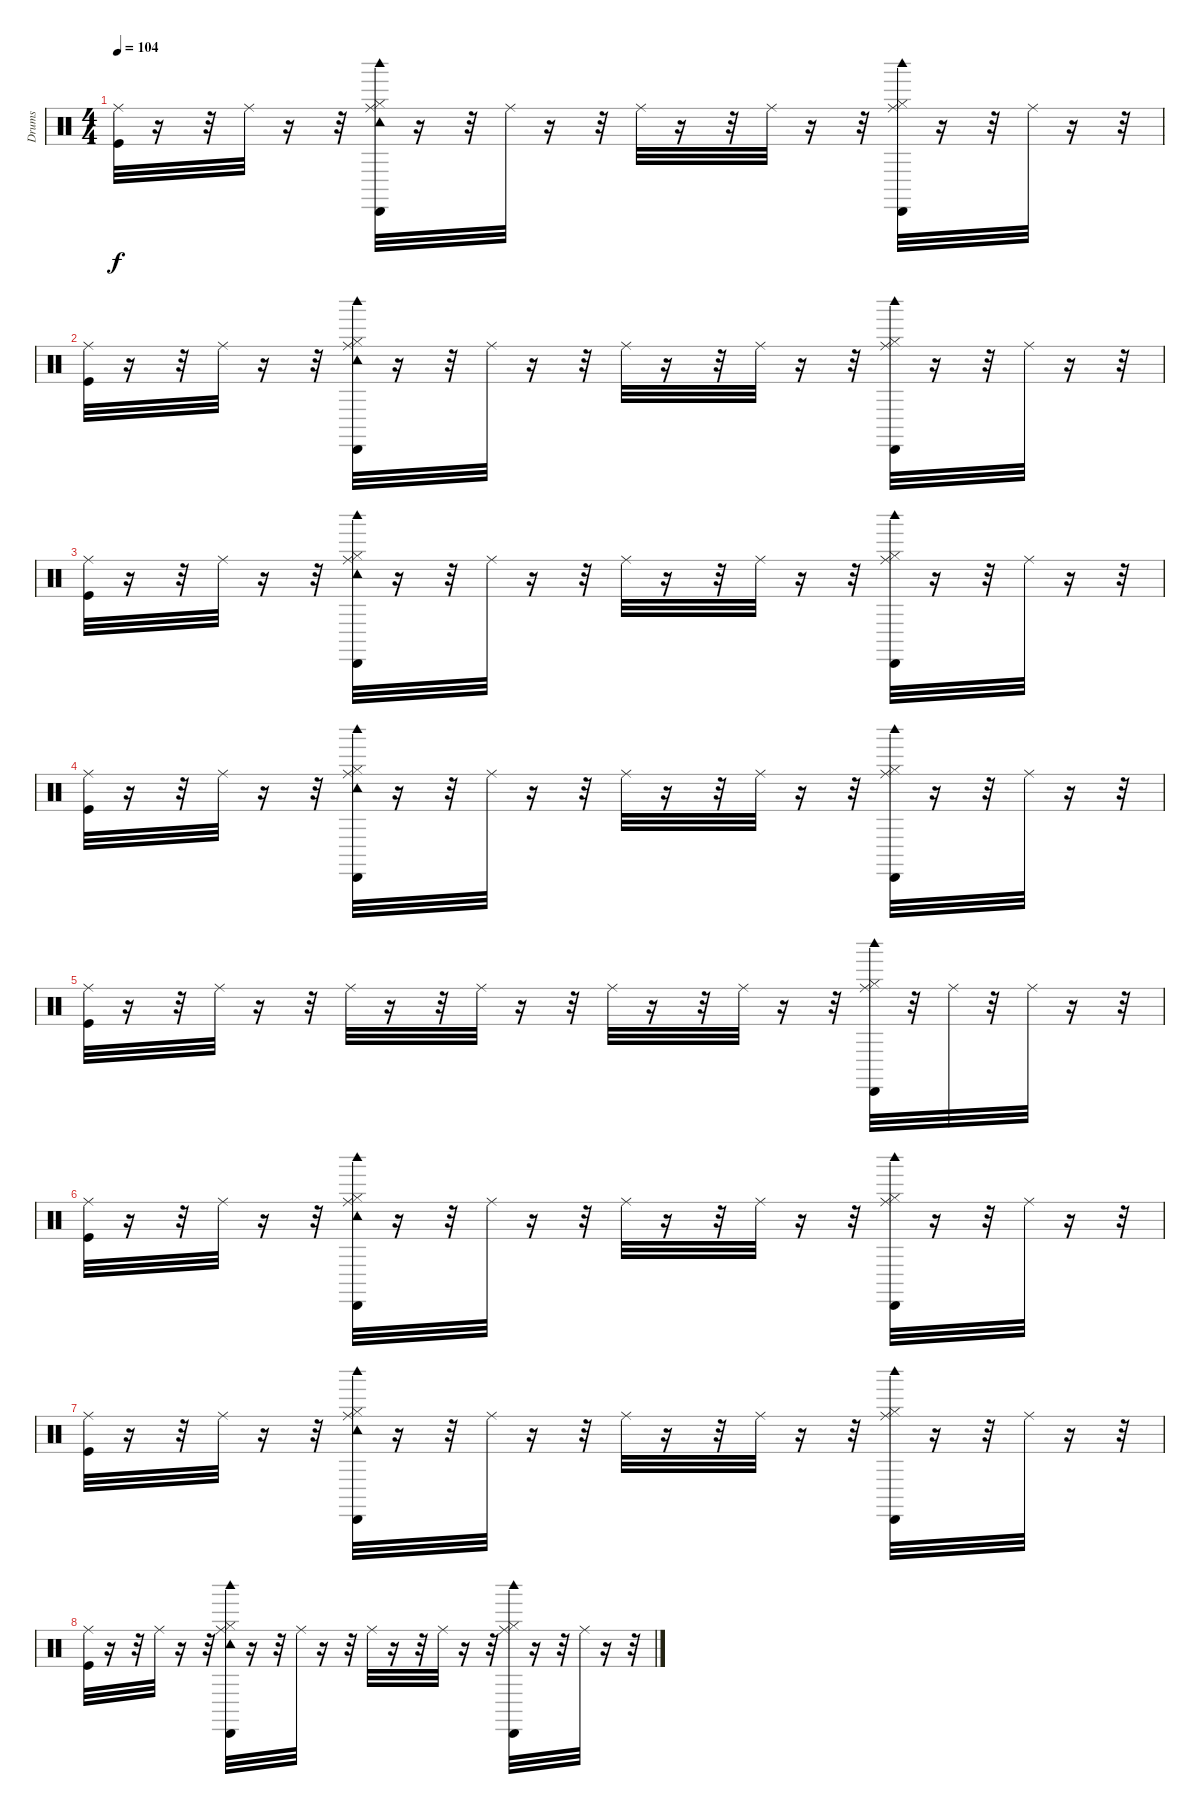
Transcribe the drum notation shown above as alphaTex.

\track ("Drums" "Drums") {instrument percussion}
\staff {score}
\articulation defaults
\ts (4 4)
\tempo 104
\clef neutral
\ks c
("Kick (hit)" "Ride (middle)").32{dy f} r.16 r.32 "Ride (middle)".32 r.16 r.32 ("Hi-Hat (closed)" "Ride (middle)" "Tambourine (hit)" "Cabasa (hit)" "Woodblock high (hit)").32 r.16 r.32 "Ride (middle)".32 r.16 r.32 "Ride (middle)".32 r.16 r.32 "Ride (middle)".32 r.16 r.32 ("Hi-Hat (closed)" "Ride (middle)" "Cabasa (hit)" "Woodblock high (hit)").32 r.16 r.32 "Ride (middle)".32 r.16 r.32 |
("Kick (hit)" "Ride (middle)").32 r.16 r.32 "Ride (middle)".32 r.16 r.32 ("Hi-Hat (closed)" "Ride (middle)" "Tambourine (hit)" "Cabasa (hit)" "Woodblock high (hit)").32 r.16 r.32 "Ride (middle)".32 r.16 r.32 "Ride (middle)".32 r.16 r.32 "Ride (middle)".32 r.16 r.32 ("Hi-Hat (closed)" "Ride (middle)" "Cabasa (hit)" "Woodblock high (hit)").32 r.16 r.32 "Ride (middle)".32 r.16 r.32 |
("Kick (hit)" "Ride (middle)").32 r.16 r.32 "Ride (middle)".32 r.16 r.32 ("Hi-Hat (closed)" "Ride (middle)" "Tambourine (hit)" "Cabasa (hit)" "Woodblock high (hit)").32 r.16 r.32 "Ride (middle)".32 r.16 r.32 "Ride (middle)".32 r.16 r.32 "Ride (middle)".32 r.16 r.32 ("Hi-Hat (closed)" "Ride (middle)" "Cabasa (hit)" "Woodblock high (hit)").32 r.16 r.32 "Ride (middle)".32 r.16 r.32 |
("Kick (hit)" "Ride (middle)").32 r.16 r.32 "Ride (middle)".32 r.16 r.32 ("Hi-Hat (closed)" "Ride (middle)" "Tambourine (hit)" "Cabasa (hit)" "Woodblock high (hit)").32 r.16 r.32 "Ride (middle)".32 r.16 r.32 "Ride (middle)".32 r.16 r.32 "Ride (middle)".32 r.16 r.32 ("Hi-Hat (closed)" "Ride (middle)" "Cabasa (hit)" "Woodblock high (hit)").32 r.16 r.32 "Ride (middle)".32 r.16 r.32 |
("Kick (hit)" "Ride (middle)").32 r.16 r.32 "Ride (middle)".32 r.16 r.32 "Ride (middle)".32 r.16 r.32 "Ride (middle)".32 r.16 r.32 "Ride (middle)".32 r.16 r.32 "Ride (middle)".32 r.16 r.32 ("Hi-Hat (closed)" "Ride (middle)" "Cabasa (hit)" "Woodblock high (hit)").32 r.32 "Ride (middle)".32 r.32 "Ride (middle)".32 r.16 r.32 |
("Kick (hit)" "Ride (middle)").32 r.16 r.32 "Ride (middle)".32 r.16 r.32 ("Hi-Hat (closed)" "Ride (middle)" "Tambourine (hit)" "Cabasa (hit)" "Woodblock high (hit)").32 r.16 r.32 "Ride (middle)".32 r.16 r.32 "Ride (middle)".32 r.16 r.32 "Ride (middle)".32 r.16 r.32 ("Hi-Hat (closed)" "Ride (middle)" "Cabasa (hit)" "Woodblock high (hit)").32 r.16 r.32 "Ride (middle)".32 r.16 r.32 |
("Kick (hit)" "Ride (middle)").32 r.16 r.32 "Ride (middle)".32 r.16 r.32 ("Hi-Hat (closed)" "Ride (middle)" "Tambourine (hit)" "Cabasa (hit)" "Woodblock high (hit)").32 r.16 r.32 "Ride (middle)".32 r.16 r.32 "Ride (middle)".32 r.16 r.32 "Ride (middle)".32 r.16 r.32 ("Hi-Hat (closed)" "Ride (middle)" "Cabasa (hit)" "Woodblock high (hit)").32 r.16 r.32 "Ride (middle)".32 r.16 r.32 |
("Kick (hit)" "Ride (middle)").32 r.16 r.32 "Ride (middle)".32 r.16 r.32 ("Hi-Hat (closed)" "Ride (middle)" "Tambourine (hit)" "Cabasa (hit)" "Woodblock high (hit)").32 r.16 r.32 "Ride (middle)".32 r.16 r.32 "Ride (middle)".32 r.16 r.32 "Ride (middle)".32 r.16 r.32 ("Hi-Hat (closed)" "Ride (middle)" "Cabasa (hit)" "Woodblock high (hit)").32 r.16 r.32 "Ride (middle)".32 r.16 r.32
